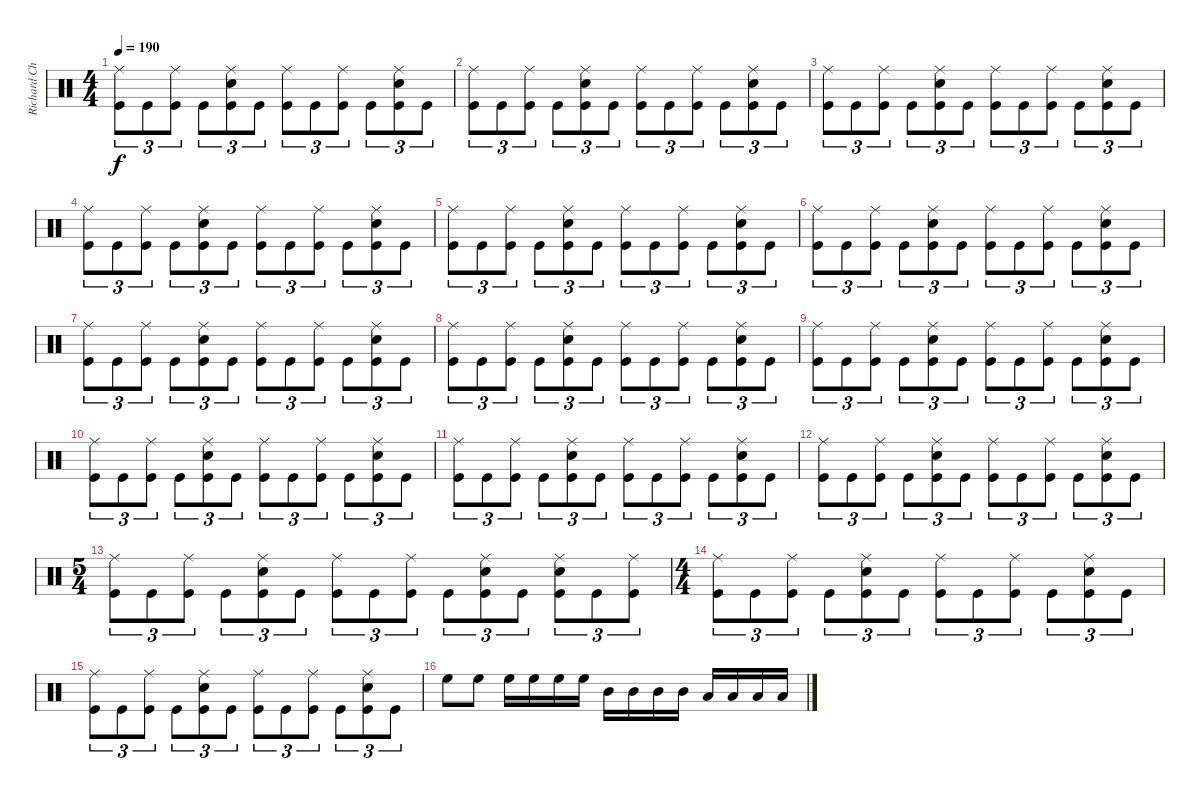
\track ("Richard Christy" "Richard Ch") {instrument percussion}
\staff {score}
\articulation defaults
\ts (4 4)
\tempo 190
\clef neutral
\ks c
("Ride (middle)" "Kick (hit)").8{tu (3 2) dy f} "Kick (hit)".8{tu (3 2)} ("Ride (middle)" "Kick (hit)").8{tu (3 2)} "Kick (hit)".8{tu (3 2)} ("Ride (middle)" "Electric Snare (hit)" "Kick (hit)").8{tu (3 2)} "Kick (hit)".8{tu (3 2)} ("Ride (middle)" "Kick (hit)").8{tu (3 2)} "Kick (hit)".8{tu (3 2)} ("Ride (middle)" "Kick (hit)").8{tu (3 2)} "Kick (hit)".8{tu (3 2)} ("Ride (middle)" "Electric Snare (hit)" "Kick (hit)").8{tu (3 2)} "Kick (hit)".8{tu (3 2)} |
("Ride (middle)" "Kick (hit)").8{tu (3 2)} "Kick (hit)".8{tu (3 2)} ("Ride (middle)" "Kick (hit)").8{tu (3 2)} "Kick (hit)".8{tu (3 2)} ("Ride (middle)" "Electric Snare (hit)" "Kick (hit)").8{tu (3 2)} "Kick (hit)".8{tu (3 2)} ("Ride (middle)" "Kick (hit)").8{tu (3 2)} "Kick (hit)".8{tu (3 2)} ("Ride (middle)" "Kick (hit)").8{tu (3 2)} "Kick (hit)".8{tu (3 2)} ("Ride (middle)" "Electric Snare (hit)" "Kick (hit)").8{tu (3 2)} "Kick (hit)".8{tu (3 2)} |
("Ride (middle)" "Kick (hit)").8{tu (3 2)} "Kick (hit)".8{tu (3 2)} ("Ride (middle)" "Kick (hit)").8{tu (3 2)} "Kick (hit)".8{tu (3 2)} ("Ride (middle)" "Electric Snare (hit)" "Kick (hit)").8{tu (3 2)} "Kick (hit)".8{tu (3 2)} ("Ride (middle)" "Kick (hit)").8{tu (3 2)} "Kick (hit)".8{tu (3 2)} ("Ride (middle)" "Kick (hit)").8{tu (3 2)} "Kick (hit)".8{tu (3 2)} ("Ride (middle)" "Electric Snare (hit)" "Kick (hit)").8{tu (3 2)} "Kick (hit)".8{tu (3 2)} |
("Ride (middle)" "Kick (hit)").8{tu (3 2)} "Kick (hit)".8{tu (3 2)} ("Ride (middle)" "Kick (hit)").8{tu (3 2)} "Kick (hit)".8{tu (3 2)} ("Ride (middle)" "Electric Snare (hit)" "Kick (hit)").8{tu (3 2)} "Kick (hit)".8{tu (3 2)} ("Ride (middle)" "Kick (hit)").8{tu (3 2)} "Kick (hit)".8{tu (3 2)} ("Ride (middle)" "Kick (hit)").8{tu (3 2)} "Kick (hit)".8{tu (3 2)} ("Ride (middle)" "Electric Snare (hit)" "Kick (hit)").8{tu (3 2)} "Kick (hit)".8{tu (3 2)} |
("Ride (middle)" "Kick (hit)").8{tu (3 2)} "Kick (hit)".8{tu (3 2)} ("Ride (middle)" "Kick (hit)").8{tu (3 2)} "Kick (hit)".8{tu (3 2)} ("Ride (middle)" "Electric Snare (hit)" "Kick (hit)").8{tu (3 2)} "Kick (hit)".8{tu (3 2)} ("Ride (middle)" "Kick (hit)").8{tu (3 2)} "Kick (hit)".8{tu (3 2)} ("Ride (middle)" "Kick (hit)").8{tu (3 2)} "Kick (hit)".8{tu (3 2)} ("Ride (middle)" "Electric Snare (hit)" "Kick (hit)").8{tu (3 2)} "Kick (hit)".8{tu (3 2)} |
("Ride (middle)" "Kick (hit)").8{tu (3 2)} "Kick (hit)".8{tu (3 2)} ("Ride (middle)" "Kick (hit)").8{tu (3 2)} "Kick (hit)".8{tu (3 2)} ("Ride (middle)" "Electric Snare (hit)" "Kick (hit)").8{tu (3 2)} "Kick (hit)".8{tu (3 2)} ("Ride (middle)" "Kick (hit)").8{tu (3 2)} "Kick (hit)".8{tu (3 2)} ("Ride (middle)" "Kick (hit)").8{tu (3 2)} "Kick (hit)".8{tu (3 2)} ("Ride (middle)" "Electric Snare (hit)" "Kick (hit)").8{tu (3 2)} "Kick (hit)".8{tu (3 2)} |
("Ride (middle)" "Kick (hit)").8{tu (3 2)} "Kick (hit)".8{tu (3 2)} ("Ride (middle)" "Kick (hit)").8{tu (3 2)} "Kick (hit)".8{tu (3 2)} ("Ride (middle)" "Electric Snare (hit)" "Kick (hit)").8{tu (3 2)} "Kick (hit)".8{tu (3 2)} ("Ride (middle)" "Kick (hit)").8{tu (3 2)} "Kick (hit)".8{tu (3 2)} ("Ride (middle)" "Kick (hit)").8{tu (3 2)} "Kick (hit)".8{tu (3 2)} ("Ride (middle)" "Electric Snare (hit)" "Kick (hit)").8{tu (3 2)} "Kick (hit)".8{tu (3 2)} |
("Ride (middle)" "Kick (hit)").8{tu (3 2)} "Kick (hit)".8{tu (3 2)} ("Ride (middle)" "Kick (hit)").8{tu (3 2)} "Kick (hit)".8{tu (3 2)} ("Ride (middle)" "Electric Snare (hit)" "Kick (hit)").8{tu (3 2)} "Kick (hit)".8{tu (3 2)} ("Ride (middle)" "Kick (hit)").8{tu (3 2)} "Kick (hit)".8{tu (3 2)} ("Ride (middle)" "Kick (hit)").8{tu (3 2)} "Kick (hit)".8{tu (3 2)} ("Ride (middle)" "Electric Snare (hit)" "Kick (hit)").8{tu (3 2)} "Kick (hit)".8{tu (3 2)} |
("Ride (middle)" "Kick (hit)").8{tu (3 2)} "Kick (hit)".8{tu (3 2)} ("Ride (middle)" "Kick (hit)").8{tu (3 2)} "Kick (hit)".8{tu (3 2)} ("Ride (middle)" "Electric Snare (hit)" "Kick (hit)").8{tu (3 2)} "Kick (hit)".8{tu (3 2)} ("Ride (middle)" "Kick (hit)").8{tu (3 2)} "Kick (hit)".8{tu (3 2)} ("Ride (middle)" "Kick (hit)").8{tu (3 2)} "Kick (hit)".8{tu (3 2)} ("Ride (middle)" "Electric Snare (hit)" "Kick (hit)").8{tu (3 2)} "Kick (hit)".8{tu (3 2)} |
("Ride (middle)" "Kick (hit)").8{tu (3 2)} "Kick (hit)".8{tu (3 2)} ("Ride (middle)" "Kick (hit)").8{tu (3 2)} "Kick (hit)".8{tu (3 2)} ("Ride (middle)" "Electric Snare (hit)" "Kick (hit)").8{tu (3 2)} "Kick (hit)".8{tu (3 2)} ("Ride (middle)" "Kick (hit)").8{tu (3 2)} "Kick (hit)".8{tu (3 2)} ("Ride (middle)" "Kick (hit)").8{tu (3 2)} "Kick (hit)".8{tu (3 2)} ("Ride (middle)" "Electric Snare (hit)" "Kick (hit)").8{tu (3 2)} "Kick (hit)".8{tu (3 2)} |
("Ride (middle)" "Kick (hit)").8{tu (3 2)} "Kick (hit)".8{tu (3 2)} ("Ride (middle)" "Kick (hit)").8{tu (3 2)} "Kick (hit)".8{tu (3 2)} ("Ride (middle)" "Electric Snare (hit)" "Kick (hit)").8{tu (3 2)} "Kick (hit)".8{tu (3 2)} ("Ride (middle)" "Kick (hit)").8{tu (3 2)} "Kick (hit)".8{tu (3 2)} ("Ride (middle)" "Kick (hit)").8{tu (3 2)} "Kick (hit)".8{tu (3 2)} ("Ride (middle)" "Electric Snare (hit)" "Kick (hit)").8{tu (3 2)} "Kick (hit)".8{tu (3 2)} |
("Ride (middle)" "Kick (hit)").8{tu (3 2)} "Kick (hit)".8{tu (3 2)} ("Ride (middle)" "Kick (hit)").8{tu (3 2)} "Kick (hit)".8{tu (3 2)} ("Ride (middle)" "Electric Snare (hit)" "Kick (hit)").8{tu (3 2)} "Kick (hit)".8{tu (3 2)} ("Ride (middle)" "Kick (hit)").8{tu (3 2)} "Kick (hit)".8{tu (3 2)} ("Ride (middle)" "Kick (hit)").8{tu (3 2)} "Kick (hit)".8{tu (3 2)} ("Ride (middle)" "Electric Snare (hit)" "Kick (hit)").8{tu (3 2)} "Kick (hit)".8{tu (3 2)} |
\ts (5 4)
("Ride (middle)" "Kick (hit)").8{tu (3 2)} "Kick (hit)".8{tu (3 2)} ("Ride (middle)" "Kick (hit)").8{tu (3 2)} "Kick (hit)".8{tu (3 2)} ("Ride (middle)" "Electric Snare (hit)" "Kick (hit)").8{tu (3 2)} "Kick (hit)".8{tu (3 2)} ("Ride (middle)" "Kick (hit)").8{tu (3 2)} "Kick (hit)".8{tu (3 2)} ("Ride (middle)" "Kick (hit)").8{tu (3 2)} "Kick (hit)".8{tu (3 2)} ("Ride (middle)" "Electric Snare (hit)" "Kick (hit)").8{tu (3 2)} "Kick (hit)".8{tu (3 2)} ("Ride (middle)" "Electric Snare (hit)" "Kick (hit)").8{tu (3 2)} "Kick (hit)".8{tu (3 2)} ("Ride (middle)" "Kick (hit)").8{tu (3 2)} |
\ts (4 4)
("Ride (middle)" "Kick (hit)").8{tu (3 2)} "Kick (hit)".8{tu (3 2)} ("Ride (middle)" "Kick (hit)").8{tu (3 2)} "Kick (hit)".8{tu (3 2)} ("Ride (middle)" "Electric Snare (hit)" "Kick (hit)").8{tu (3 2)} "Kick (hit)".8{tu (3 2)} ("Ride (middle)" "Kick (hit)").8{tu (3 2)} "Kick (hit)".8{tu (3 2)} ("Ride (middle)" "Kick (hit)").8{tu (3 2)} "Kick (hit)".8{tu (3 2)} ("Ride (middle)" "Electric Snare (hit)" "Kick (hit)").8{tu (3 2)} "Kick (hit)".8{tu (3 2)} |
("Ride (middle)" "Kick (hit)").8{tu (3 2)} "Kick (hit)".8{tu (3 2)} ("Ride (middle)" "Kick (hit)").8{tu (3 2)} "Kick (hit)".8{tu (3 2)} ("Ride (middle)" "Electric Snare (hit)" "Kick (hit)").8{tu (3 2)} "Kick (hit)".8{tu (3 2)} ("Ride (middle)" "Kick (hit)").8{tu (3 2)} "Kick (hit)".8{tu (3 2)} ("Ride (middle)" "Kick (hit)").8{tu (3 2)} "Kick (hit)".8{tu (3 2)} ("Ride (middle)" "Electric Snare (hit)" "Kick (hit)").8{tu (3 2)} "Kick (hit)".8{tu (3 2)} |
"High Floor Tom (hit)".8 "High Floor Tom (hit)".8 "High Floor Tom (hit)".16 "High Floor Tom (hit)".16 "High Floor Tom (hit)".16 "High Floor Tom (hit)".16 "Mid Tom (hit)".16 "Mid Tom (hit)".16 "Mid Tom (hit)".16 "Mid Tom (hit)".16 "Low Tom (hit)".16 "Low Tom (hit)".16 "Low Tom (hit)".16 "Low Tom (hit)".16
